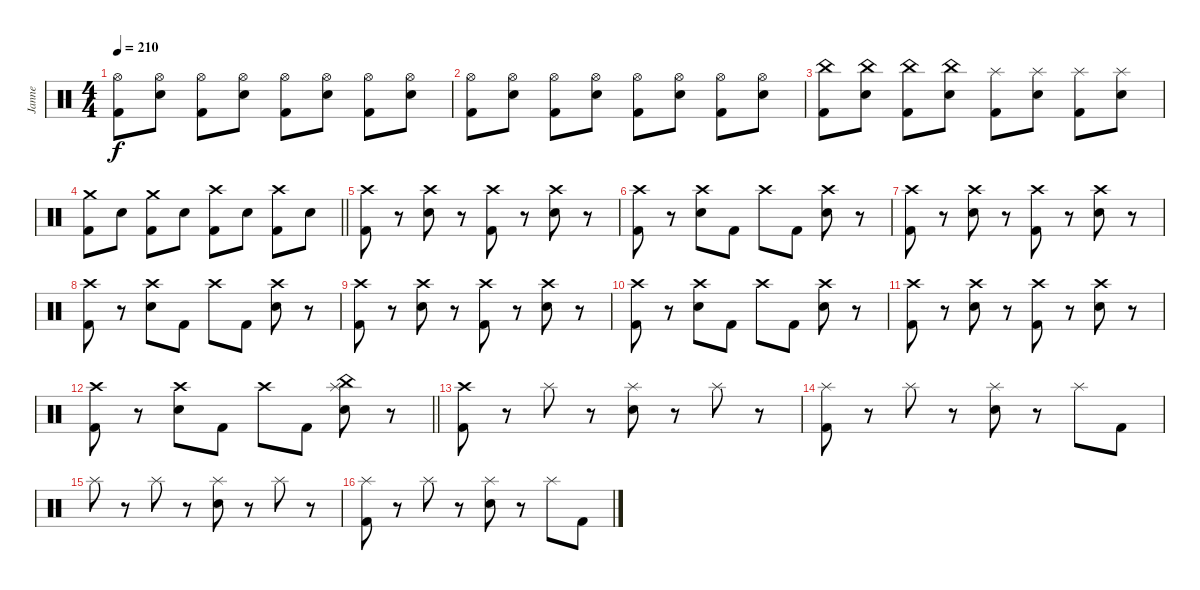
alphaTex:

\track ("Janne" "Janne") {instrument percussion}
\staff {score}
\articulation defaults
\ts (4 4)
\tempo 210
\clef neutral
\ks c
("Hi-Hat (open)" "Kick (hit) 2").8{dy f} ("Hi-Hat (open)" "Electric Snare (hit)").8 ("Hi-Hat (open)" "Kick (hit) 2").8 ("Hi-Hat (open)" "Electric Snare (hit)").8 ("Hi-Hat (open)" "Kick (hit) 2").8 ("Hi-Hat (open)" "Electric Snare (hit)").8 ("Hi-Hat (open)" "Kick (hit) 2").8 ("Hi-Hat (open)" "Electric Snare (hit)").8 |
("Hi-Hat (open)" "Kick (hit) 2").8 ("Hi-Hat (open)" "Electric Snare (hit)").8 ("Hi-Hat (open)" "Kick (hit) 2").8 ("Hi-Hat (open)" "Electric Snare (hit)").8 ("Hi-Hat (open)" "Kick (hit) 2").8 ("Hi-Hat (open)" "Electric Snare (hit)").8 ("Hi-Hat (open)" "Kick (hit) 2").8 ("Hi-Hat (open)" "Electric Snare (hit)").8 |
("China (hit)" "Kick (hit) 2").8 ("China (hit)" "Electric Snare (hit)").8 ("China (hit)" "Kick (hit) 2").8 ("China (hit)" "Electric Snare (hit)").8 ("Splash (hit)" "Kick (hit) 2").8 ("Splash (hit)" "Electric Snare (hit)").8 ("Splash (hit)" "Kick (hit) 2").8 ("Splash (hit)" "Electric Snare (hit)").8 |
\barLineRight lightlight
("Crash medium (hit)" "Kick (hit) 2").8 "Electric Snare (hit)".8 ("Crash medium (hit)" "Kick (hit) 2").8 "Electric Snare (hit)".8 ("Crash high (hit)" "Kick (hit) 2").8 "Electric Snare (hit)".8 ("Crash high (hit)" "Kick (hit) 2").8 "Electric Snare (hit)".8 |
("Crash high (hit)" "Kick (hit) 2").8 r.8 ("Crash high (hit)" "Electric Snare (hit)").8 r.8 ("Crash high (hit)" "Kick (hit) 2").8 r.8 ("Crash high (hit)" "Electric Snare (hit)").8 r.8 |
("Crash high (hit)" "Kick (hit) 2").8 r.8 ("Crash high (hit)" "Electric Snare (hit)").8 "Kick (hit) 2".8 "Crash high (hit)".8 "Kick (hit) 2".8 ("Crash high (hit)" "Electric Snare (hit)").8 r.8 |
("Crash high (hit)" "Kick (hit) 2").8 r.8 ("Crash high (hit)" "Electric Snare (hit)").8 r.8 ("Crash high (hit)" "Kick (hit) 2").8 r.8 ("Crash high (hit)" "Electric Snare (hit)").8 r.8 |
("Crash high (hit)" "Kick (hit) 2").8 r.8 ("Crash high (hit)" "Electric Snare (hit)").8 "Kick (hit) 2".8 "Crash high (hit)".8 "Kick (hit) 2".8 ("Crash high (hit)" "Electric Snare (hit)").8 r.8 |
("Crash high (hit)" "Kick (hit) 2").8 r.8 ("Crash high (hit)" "Electric Snare (hit)").8 r.8 ("Crash high (hit)" "Kick (hit) 2").8 r.8 ("Crash high (hit)" "Electric Snare (hit)").8 r.8 |
("Crash high (hit)" "Kick (hit) 2").8 r.8 ("Crash high (hit)" "Electric Snare (hit)").8 "Kick (hit) 2".8 "Crash high (hit)".8 "Kick (hit) 2".8 ("Crash high (hit)" "Electric Snare (hit)").8 r.8 |
("Crash high (hit)" "Kick (hit) 2").8 r.8 ("Crash high (hit)" "Electric Snare (hit)").8 r.8 ("Crash high (hit)" "Kick (hit) 2").8 r.8 ("Crash high (hit)" "Electric Snare (hit)").8 r.8 |
\barLineRight lightlight
("Crash high (hit)" "Kick (hit) 2").8 r.8 ("Crash high (hit)" "Electric Snare (hit)").8 "Kick (hit) 2".8 "Crash high (hit)".8 "Kick (hit) 2".8 ("China (hit)" "Splash (hit)" "Electric Snare (hit)").8 r.8 |
("Crash high (hit)" "Kick (hit) 2").8 r.8 "Splash (hit)".8 r.8 ("Splash (hit)" "Electric Snare (hit)").8 r.8 "Splash (hit)".8 r.8 |
("Splash (hit)" "Kick (hit) 2").8 r.8 "Splash (hit)".8 r.8 ("Splash (hit)" "Electric Snare (hit)").8 r.8 "Splash (hit)".8 "Kick (hit) 2".8 |
"Splash (hit)".8 r.8 "Splash (hit)".8 r.8 ("Splash (hit)" "Electric Snare (hit)").8 r.8 "Splash (hit)".8 r.8 |
("Splash (hit)" "Kick (hit) 2").8 r.8 "Splash (hit)".8 r.8 ("Splash (hit)" "Electric Snare (hit)").8 r.8 "Splash (hit)".8 "Kick (hit) 2".8
